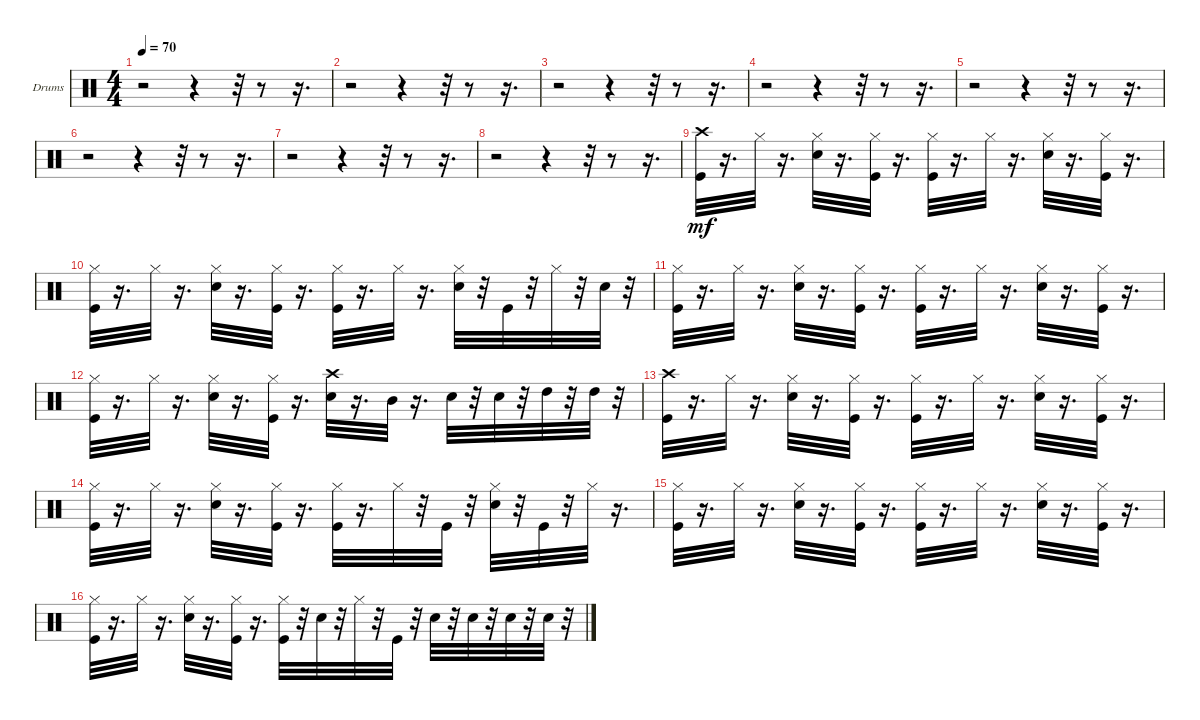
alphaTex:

\bracketExtendMode groupsimilarinstruments
\firstSystemTrackNameOrientation horizontal
\otherSystemsTrackNameOrientation horizontal
\track ("" "Drums") {instrument percussion}
\staff {score}
\articulation defaults
\ts (4 4)
\tempo 70
\clef neutral
\ks c
r.2{dy mf} r.4 r.32 r.8 r.16{d} |
r.2 r.4 r.32 r.8 r.16{d} |
r.2 r.4 r.32 r.8 r.16{d} |
r.2 r.4 r.32 r.8 r.16{d} |
r.2 r.4 r.32 r.8 r.16{d} |
r.2 r.4 r.32 r.8 r.16{d} |
r.2 r.4 r.32 r.8 r.16{d} |
r.2 r.4 r.32 r.8 r.16{d} |
("Crash high (hit)" "Kick (hit)").32 r.16{d} "Hi-Hat (closed)".32 r.16{d} ("Snare (hit) 2" "Hi-Hat (closed)").32 r.16{d} ("Kick (hit)" "Hi-Hat (closed)").32 r.16{d} ("Kick (hit)" "Hi-Hat (closed)").32 r.16{d} "Hi-Hat (closed)".32 r.16{d} ("Snare (hit) 2" "Hi-Hat (closed)").32 r.16{d} ("Kick (hit)" "Hi-Hat (closed)").32 r.16{d} |
("Hi-Hat (closed)" "Kick (hit)").32 r.16{d} "Hi-Hat (closed)".32 r.16{d} ("Snare (hit) 2" "Hi-Hat (closed)").32 r.16{d} ("Kick (hit)" "Hi-Hat (closed)").32 r.16{d} ("Kick (hit)" "Hi-Hat (closed)").32 r.16{d} "Hi-Hat (closed)".32 r.16{d} ("Snare (hit) 2" "Hi-Hat (closed)").32 r.32 "Kick (hit)".32 r.32 "Hi-Hat (closed)".32 r.32 "Snare (hit) 2".32 r.32 |
("Hi-Hat (closed)" "Kick (hit)").32 r.16{d} "Hi-Hat (closed)".32 r.16{d} ("Snare (hit) 2" "Hi-Hat (closed)").32 r.16{d} ("Kick (hit)" "Hi-Hat (closed)").32 r.16{d} ("Kick (hit)" "Hi-Hat (closed)").32 r.16{d} "Hi-Hat (closed)".32 r.16{d} ("Snare (hit) 2" "Hi-Hat (closed)").32 r.16{d} ("Kick (hit)" "Hi-Hat (closed)").32 r.16{d} |
("Hi-Hat (closed)" "Kick (hit)").32 r.16{d} "Hi-Hat (closed)".32 r.16{d} ("Snare (hit) 2" "Hi-Hat (closed)").32 r.16{d} ("Kick (hit)" "Hi-Hat (closed)").32 r.16{d} ("Snare (hit) 2" "Crash high (hit)").32 r.16{d} "Mid Tom (hit)".32 r.16{d} "Snare (hit) 2".32 r.32 "Snare (hit) 2".32 r.32 "High Tom (hit)".32 r.32 "High Tom (hit)".32 r.32 |
("Crash high (hit)" "Kick (hit)").32 r.16{d} "Hi-Hat (closed)".32 r.16{d} ("Snare (hit) 2" "Hi-Hat (closed)").32 r.16{d} ("Kick (hit)" "Hi-Hat (closed)").32 r.16{d} ("Kick (hit)" "Hi-Hat (closed)").32 r.16{d} "Hi-Hat (closed)".32 r.16{d} ("Snare (hit) 2" "Hi-Hat (closed)").32 r.16{d} ("Kick (hit)" "Hi-Hat (closed)").32 r.16{d} |
("Hi-Hat (closed)" "Kick (hit)").32 r.16{d} "Hi-Hat (closed)".32 r.16{d} ("Snare (hit) 2" "Hi-Hat (closed)").32 r.16{d} ("Kick (hit)" "Hi-Hat (closed)").32 r.16{d} ("Kick (hit)" "Hi-Hat (closed)").32 r.16{d} "Hi-Hat (closed)".32 r.32 "Kick (hit)".32 r.32 ("Snare (hit) 2" "Hi-Hat (closed)").32 r.32 "Kick (hit)".32 r.32 "Hi-Hat (closed)".32 r.16{d} |
("Hi-Hat (closed)" "Kick (hit)").32 r.16{d} "Hi-Hat (closed)".32 r.16{d} ("Snare (hit) 2" "Hi-Hat (closed)").32 r.16{d} ("Kick (hit)" "Hi-Hat (closed)").32 r.16{d} ("Kick (hit)" "Hi-Hat (closed)").32 r.16{d} "Hi-Hat (closed)".32 r.16{d} ("Snare (hit) 2" "Hi-Hat (closed)").32 r.16{d} ("Kick (hit)" "Hi-Hat (closed)").32 r.16{d} |
("Hi-Hat (closed)" "Kick (hit)").32 r.16{d} "Hi-Hat (closed)".32 r.16{d} ("Snare (hit) 2" "Hi-Hat (closed)").32 r.16{d} ("Kick (hit)" "Hi-Hat (closed)").32 r.16{d} ("Kick (hit)" "Hi-Hat (closed)").32 r.32 "Snare (hit) 2".32 r.32 "Hi-Hat (closed)".32 r.32 "Kick (hit)".32 r.32 "Snare (hit) 2".32 r.32 "Snare (hit) 2".32 r.32 "Snare (hit) 2".32 r.32 "Snare (hit) 2".32 r.32
